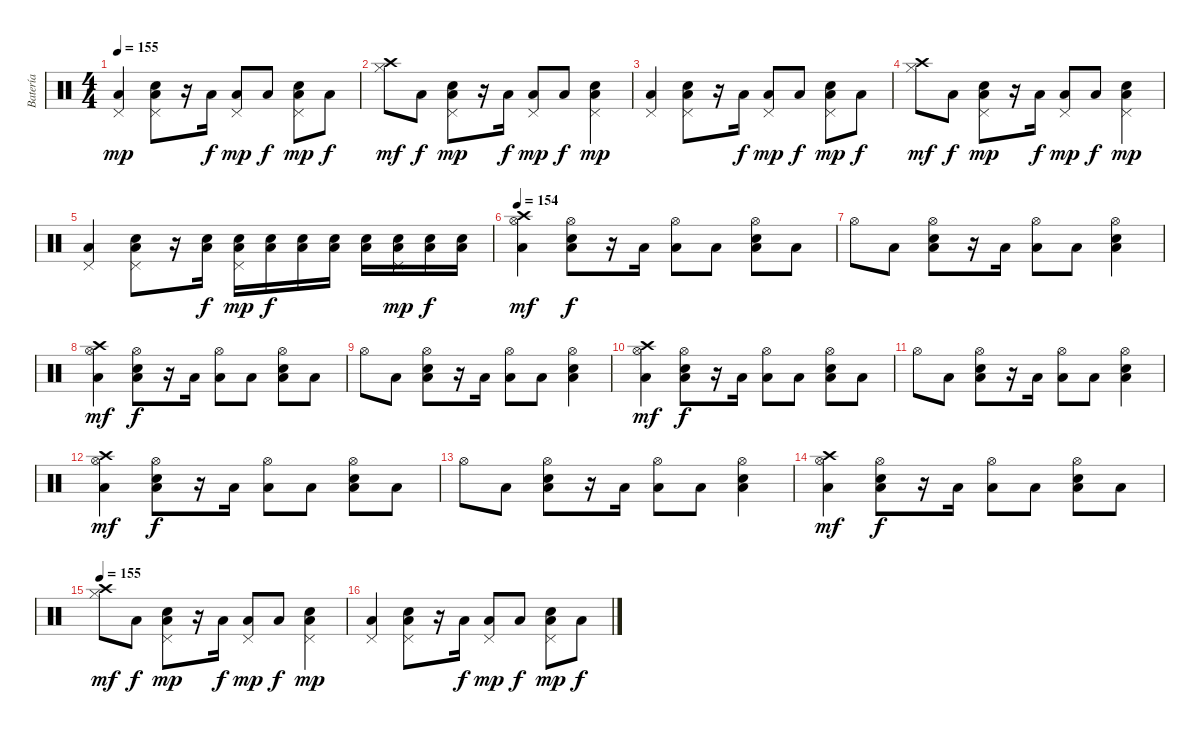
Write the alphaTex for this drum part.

\track ("Batería" "Batería") {instrument percussion}
\staff {score}
\articulation defaults
\ts (4 4)
\tempo 155
\clef neutral
\ks c
("Low Floor Tom (hit)" "Pedal Hi-Hat (hit)").4{dy mp} ("Low Floor Tom (hit)" "Snare (hit) 2" "Pedal Hi-Hat (hit)").8 r.16 "Low Floor Tom (hit)".16{dy f} ("Low Floor Tom (hit)" "Pedal Hi-Hat (hit)").8{dy mp} "Low Floor Tom (hit)".8{dy f} ("Low Floor Tom (hit)" "Snare (hit) 2" "Pedal Hi-Hat (hit)").8{dy mp} "Low Floor Tom (hit)".8{dy f} |
("Hi-Hat (closed)" "Crash high (hit)").8{dy mf} "Low Floor Tom (hit)".8{dy f} ("Low Floor Tom (hit)" "Snare (hit) 2" "Pedal Hi-Hat (hit)").8{dy mp} r.16 "Low Floor Tom (hit)".16{dy f} ("Low Floor Tom (hit)" "Pedal Hi-Hat (hit)").8{dy mp} "Low Floor Tom (hit)".8{dy f} ("Low Floor Tom (hit)" "Snare (hit) 2" "Pedal Hi-Hat (hit)").4{dy mp} |
("Low Floor Tom (hit)" "Pedal Hi-Hat (hit)").4 ("Low Floor Tom (hit)" "Snare (hit) 2" "Pedal Hi-Hat (hit)").8 r.16 "Low Floor Tom (hit)".16{dy f} ("Low Floor Tom (hit)" "Pedal Hi-Hat (hit)").8{dy mp} "Low Floor Tom (hit)".8{dy f} ("Low Floor Tom (hit)" "Snare (hit) 2" "Pedal Hi-Hat (hit)").8{dy mp} "Low Floor Tom (hit)".8{dy f} |
("Hi-Hat (closed)" "Crash high (hit)").8{dy mf} "Low Floor Tom (hit)".8{dy f} ("Low Floor Tom (hit)" "Snare (hit) 2" "Pedal Hi-Hat (hit)").8{dy mp} r.16 "Low Floor Tom (hit)".16{dy f} ("Low Floor Tom (hit)" "Pedal Hi-Hat (hit)").8{dy mp} "Low Floor Tom (hit)".8{dy f} ("Low Floor Tom (hit)" "Snare (hit) 2" "Pedal Hi-Hat (hit)").4{dy mp} |
("Low Floor Tom (hit)" "Pedal Hi-Hat (hit)").4 ("Low Floor Tom (hit)" "Snare (hit) 2" "Pedal Hi-Hat (hit)").8 r.16 ("Low Floor Tom (hit)" "Snare (hit) 2").16{dy f} ("Low Floor Tom (hit)" "Snare (hit) 2" "Pedal Hi-Hat (hit)").16{dy mp} ("Low Floor Tom (hit)" "Snare (hit) 2").16{dy f} ("Low Floor Tom (hit)" "Snare (hit) 2").16 ("Low Floor Tom (hit)" "Snare (hit) 2").16 ("Low Floor Tom (hit)" "Snare (hit) 2").16 ("Low Floor Tom (hit)" "Snare (hit) 2" "Pedal Hi-Hat (hit)").16{dy mp} ("Low Floor Tom (hit)" "Snare (hit) 2").16{dy f} ("Low Floor Tom (hit)" "Snare (hit) 2").16 |
\tempo 154
("Low Floor Tom (hit)" "Hi-Hat (open)" "Crash high (hit)").4{dy mf} ("Low Floor Tom (hit)" "Snare (hit) 2" "Hi-Hat (open)").8{dy f} r.16 "Low Floor Tom (hit)".16 ("Low Floor Tom (hit)" "Hi-Hat (open)").8 "Low Floor Tom (hit)".8 ("Low Floor Tom (hit)" "Snare (hit) 2" "Hi-Hat (open)").8 "Low Floor Tom (hit)".8 |
"Hi-Hat (open)".8 "Low Floor Tom (hit)".8 ("Low Floor Tom (hit)" "Snare (hit) 2" "Hi-Hat (open)").8 r.16 "Low Floor Tom (hit)".16 ("Low Floor Tom (hit)" "Hi-Hat (open)").8 "Low Floor Tom (hit)".8 ("Low Floor Tom (hit)" "Snare (hit) 2" "Hi-Hat (open)").4 |
("Low Floor Tom (hit)" "Hi-Hat (open)" "Crash high (hit)").4{dy mf} ("Low Floor Tom (hit)" "Snare (hit) 2" "Hi-Hat (open)").8{dy f} r.16 "Low Floor Tom (hit)".16 ("Low Floor Tom (hit)" "Hi-Hat (open)").8 "Low Floor Tom (hit)".8 ("Low Floor Tom (hit)" "Snare (hit) 2" "Hi-Hat (open)").8 "Low Floor Tom (hit)".8 |
"Hi-Hat (open)".8 "Low Floor Tom (hit)".8 ("Low Floor Tom (hit)" "Snare (hit) 2" "Hi-Hat (open)").8 r.16 "Low Floor Tom (hit)".16 ("Low Floor Tom (hit)" "Hi-Hat (open)").8 "Low Floor Tom (hit)".8 ("Low Floor Tom (hit)" "Snare (hit) 2" "Hi-Hat (open)").4 |
("Low Floor Tom (hit)" "Hi-Hat (open)" "Crash high (hit)").4{dy mf} ("Low Floor Tom (hit)" "Snare (hit) 2" "Hi-Hat (open)").8{dy f} r.16 "Low Floor Tom (hit)".16 ("Low Floor Tom (hit)" "Hi-Hat (open)").8 "Low Floor Tom (hit)".8 ("Low Floor Tom (hit)" "Snare (hit) 2" "Hi-Hat (open)").8 "Low Floor Tom (hit)".8 |
"Hi-Hat (open)".8 "Low Floor Tom (hit)".8 ("Low Floor Tom (hit)" "Snare (hit) 2" "Hi-Hat (open)").8 r.16 "Low Floor Tom (hit)".16 ("Low Floor Tom (hit)" "Hi-Hat (open)").8 "Low Floor Tom (hit)".8 ("Low Floor Tom (hit)" "Snare (hit) 2" "Hi-Hat (open)").4 |
("Low Floor Tom (hit)" "Hi-Hat (open)" "Crash high (hit)").4{dy mf} ("Low Floor Tom (hit)" "Snare (hit) 2" "Hi-Hat (open)").8{dy f} r.16 "Low Floor Tom (hit)".16 ("Low Floor Tom (hit)" "Hi-Hat (open)").8 "Low Floor Tom (hit)".8 ("Low Floor Tom (hit)" "Snare (hit) 2" "Hi-Hat (open)").8 "Low Floor Tom (hit)".8 |
"Hi-Hat (open)".8 "Low Floor Tom (hit)".8 ("Low Floor Tom (hit)" "Snare (hit) 2" "Hi-Hat (open)").8 r.16 "Low Floor Tom (hit)".16 ("Low Floor Tom (hit)" "Hi-Hat (open)").8 "Low Floor Tom (hit)".8 ("Low Floor Tom (hit)" "Snare (hit) 2" "Hi-Hat (open)").4 |
("Low Floor Tom (hit)" "Hi-Hat (open)" "Crash high (hit)").4{dy mf} ("Low Floor Tom (hit)" "Snare (hit) 2" "Hi-Hat (open)").8{dy f} r.16 "Low Floor Tom (hit)".16 ("Low Floor Tom (hit)" "Hi-Hat (open)").8 "Low Floor Tom (hit)".8 ("Low Floor Tom (hit)" "Snare (hit) 2" "Hi-Hat (open)").8 "Low Floor Tom (hit)".8 |
\tempo 155
("Hi-Hat (closed)" "Crash high (hit)").8{dy mf} "Low Floor Tom (hit)".8{dy f} ("Low Floor Tom (hit)" "Snare (hit) 2" "Pedal Hi-Hat (hit)").8{dy mp} r.16 "Low Floor Tom (hit)".16{dy f} ("Low Floor Tom (hit)" "Pedal Hi-Hat (hit)").8{dy mp} "Low Floor Tom (hit)".8{dy f} ("Low Floor Tom (hit)" "Snare (hit) 2" "Pedal Hi-Hat (hit)").4{dy mp} |
("Low Floor Tom (hit)" "Pedal Hi-Hat (hit)").4 ("Low Floor Tom (hit)" "Snare (hit) 2" "Pedal Hi-Hat (hit)").8 r.16 "Low Floor Tom (hit)".16{dy f} ("Low Floor Tom (hit)" "Pedal Hi-Hat (hit)").8{dy mp} "Low Floor Tom (hit)".8{dy f} ("Low Floor Tom (hit)" "Snare (hit) 2" "Pedal Hi-Hat (hit)").8{dy mp} "Low Floor Tom (hit)".8{dy f}
